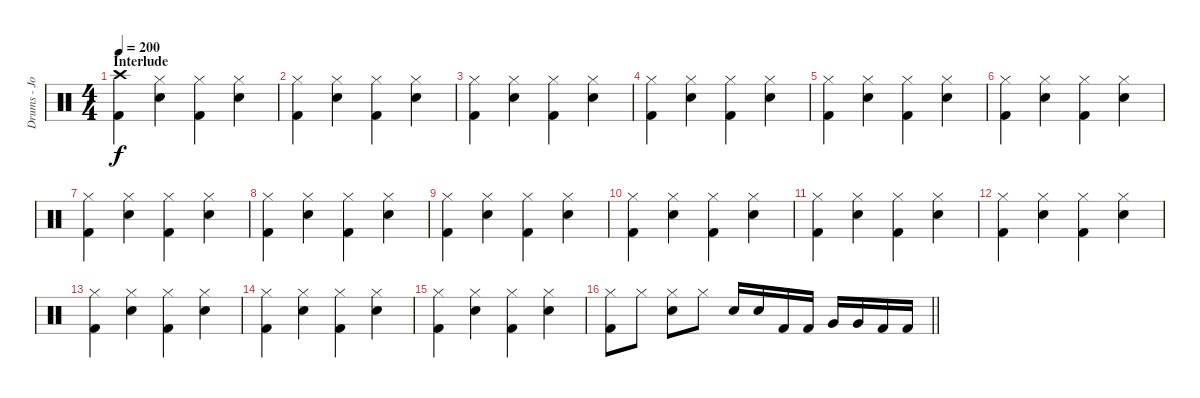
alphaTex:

\track ("Drums - John" "Drums - Jo") {instrument percussion}
\staff {score}
\articulation defaults
\ts (4 4)
\section ("" "Interlude")
\tempo 200
\clef neutral
\ks c
("Crash high (hit)" "Kick (hit) 2").4{dy f} ("Hi-Hat (closed)" "Electric Snare (hit)").4 ("Hi-Hat (closed)" "Kick (hit) 2").4 ("Hi-Hat (closed)" "Electric Snare (hit)").4 |
("Hi-Hat (closed)" "Kick (hit) 2").4 ("Hi-Hat (closed)" "Electric Snare (hit)").4 ("Hi-Hat (closed)" "Kick (hit) 2").4 ("Hi-Hat (closed)" "Electric Snare (hit)").4 |
("Hi-Hat (closed)" "Kick (hit) 2").4 ("Hi-Hat (closed)" "Electric Snare (hit)").4 ("Hi-Hat (closed)" "Kick (hit) 2").4 ("Hi-Hat (closed)" "Electric Snare (hit)").4 |
("Hi-Hat (closed)" "Kick (hit) 2").4 ("Hi-Hat (closed)" "Electric Snare (hit)").4 ("Hi-Hat (closed)" "Kick (hit) 2").4 ("Hi-Hat (closed)" "Electric Snare (hit)").4 |
("Hi-Hat (closed)" "Kick (hit) 2").4 ("Hi-Hat (closed)" "Electric Snare (hit)").4 ("Hi-Hat (closed)" "Kick (hit) 2").4 ("Hi-Hat (closed)" "Electric Snare (hit)").4 |
("Hi-Hat (closed)" "Kick (hit) 2").4 ("Hi-Hat (closed)" "Electric Snare (hit)").4 ("Hi-Hat (closed)" "Kick (hit) 2").4 ("Hi-Hat (closed)" "Electric Snare (hit)").4 |
("Hi-Hat (closed)" "Kick (hit) 2").4 ("Hi-Hat (closed)" "Electric Snare (hit)").4 ("Hi-Hat (closed)" "Kick (hit) 2").4 ("Hi-Hat (closed)" "Electric Snare (hit)").4 |
("Hi-Hat (closed)" "Kick (hit) 2").4 ("Hi-Hat (closed)" "Electric Snare (hit)").4 ("Hi-Hat (closed)" "Kick (hit) 2").4 ("Hi-Hat (closed)" "Electric Snare (hit)").4 |
("Hi-Hat (closed)" "Kick (hit) 2").4 ("Hi-Hat (closed)" "Electric Snare (hit)").4 ("Hi-Hat (closed)" "Kick (hit) 2").4 ("Hi-Hat (closed)" "Electric Snare (hit)").4 |
("Hi-Hat (closed)" "Kick (hit) 2").4 ("Hi-Hat (closed)" "Electric Snare (hit)").4 ("Hi-Hat (closed)" "Kick (hit) 2").4 ("Hi-Hat (closed)" "Electric Snare (hit)").4 |
("Hi-Hat (closed)" "Kick (hit) 2").4 ("Hi-Hat (closed)" "Electric Snare (hit)").4 ("Hi-Hat (closed)" "Kick (hit) 2").4 ("Hi-Hat (closed)" "Electric Snare (hit)").4 |
("Hi-Hat (closed)" "Kick (hit) 2").4 ("Hi-Hat (closed)" "Electric Snare (hit)").4 ("Hi-Hat (closed)" "Kick (hit) 2").4 ("Hi-Hat (closed)" "Electric Snare (hit)").4 |
("Hi-Hat (closed)" "Kick (hit) 2").4 ("Hi-Hat (closed)" "Electric Snare (hit)").4 ("Hi-Hat (closed)" "Kick (hit) 2").4 ("Hi-Hat (closed)" "Electric Snare (hit)").4 |
("Hi-Hat (closed)" "Kick (hit) 2").4 ("Hi-Hat (closed)" "Electric Snare (hit)").4 ("Hi-Hat (closed)" "Kick (hit) 2").4 ("Hi-Hat (closed)" "Electric Snare (hit)").4 |
("Hi-Hat (closed)" "Kick (hit) 2").4 ("Hi-Hat (closed)" "Electric Snare (hit)").4 ("Hi-Hat (closed)" "Kick (hit) 2").4 ("Hi-Hat (closed)" "Electric Snare (hit)").4 |
\barLineRight lightlight
("Hi-Hat (closed)" "Kick (hit) 2").8 "Hi-Hat (closed)".8 ("Hi-Hat (closed)" "Electric Snare (hit)").8 "Hi-Hat (closed)".8 "Electric Snare (hit)".16 "Electric Snare (hit)".16 "Kick (hit) 2".16 "Kick (hit) 2".16 "Very Low Tom (hit)".16 "Very Low Tom (hit)".16 "Kick (hit) 2".16 "Kick (hit) 2".16
